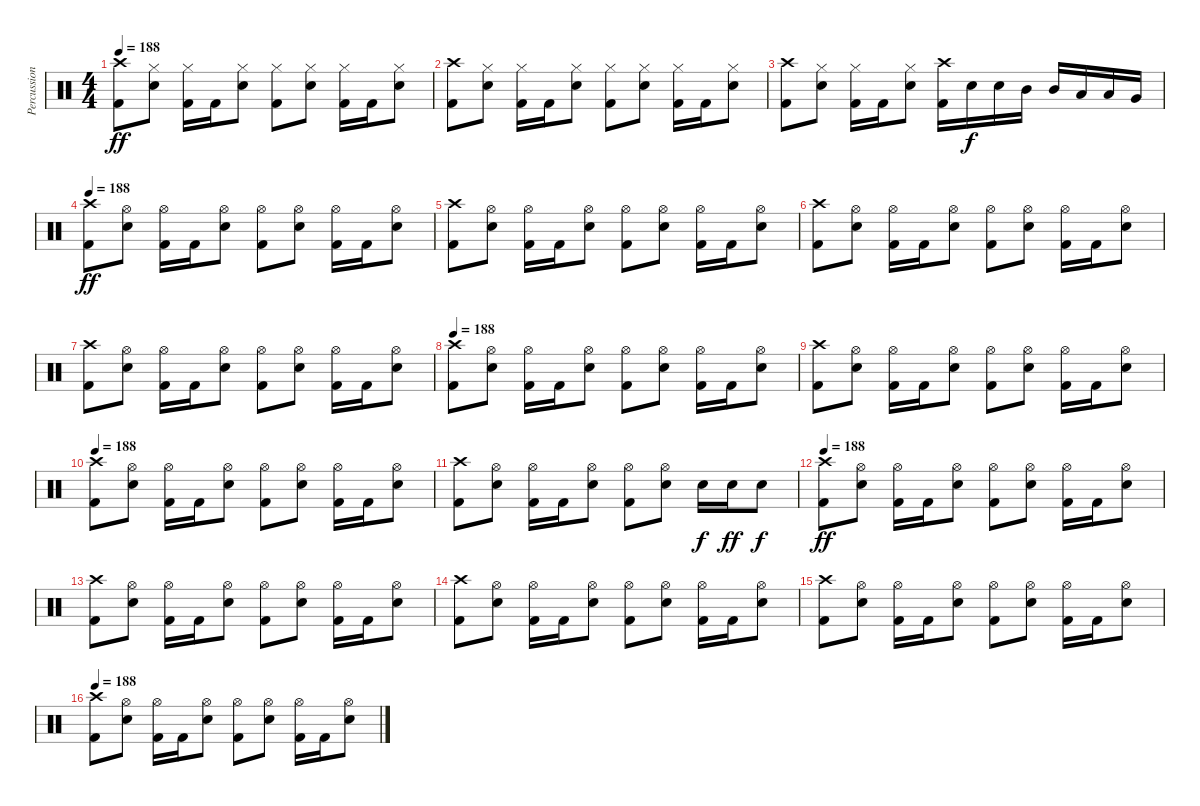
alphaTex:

\track ("Percussion" "Percussion") {instrument percussion}
\staff {score}
\articulation defaults
\ts (4 4)
\tempo 188
\clef neutral
\ks c
("Crash high (hit)" "Kick (hit) 2").8{dy ff} ("Hi-Hat (closed)" "Snare (hit) 2").8 ("Hi-Hat (closed)" "Kick (hit) 2").16 "Kick (hit) 2".16 ("Hi-Hat (closed)" "Snare (hit) 2").8 ("Hi-Hat (closed)" "Kick (hit) 2").8 ("Hi-Hat (closed)" "Snare (hit) 2").8 ("Hi-Hat (closed)" "Kick (hit) 2").16 "Kick (hit) 2".16 ("Hi-Hat (closed)" "Snare (hit) 2").8 |
("Crash high (hit)" "Kick (hit) 2").8 ("Hi-Hat (closed)" "Snare (hit) 2").8 ("Hi-Hat (closed)" "Kick (hit) 2").16 "Kick (hit) 2".16 ("Hi-Hat (closed)" "Snare (hit) 2").8 ("Hi-Hat (closed)" "Kick (hit) 2").8 ("Hi-Hat (closed)" "Snare (hit) 2").8 ("Hi-Hat (closed)" "Kick (hit) 2").16 "Kick (hit) 2".16 ("Hi-Hat (closed)" "Snare (hit) 2").8 |
("Crash high (hit)" "Kick (hit) 2").8 ("Hi-Hat (closed)" "Snare (hit) 2").8 ("Hi-Hat (closed)" "Kick (hit) 2").16 "Kick (hit) 2".16 ("Hi-Hat (closed)" "Snare (hit) 2").8 ("Crash high (hit)" "Kick (hit) 2").16 "Snare (hit) 2".16{dy f} "Snare (hit) 2".16 "Mid Tom (hit)".16 "Mid Tom (hit)".16 "Low Tom (hit)".16 "Low Tom (hit)".16 "Very Low Tom (hit)".16 |
\tempo 188
("Crash high (hit)" "Kick (hit) 2").8{dy ff} ("Hi-Hat (open)" "Snare (hit) 2").8 ("Hi-Hat (open)" "Kick (hit) 2").16 "Kick (hit) 2".16 ("Hi-Hat (open)" "Snare (hit) 2").8 ("Hi-Hat (open)" "Kick (hit) 2").8 ("Hi-Hat (open)" "Snare (hit) 2").8 ("Hi-Hat (open)" "Kick (hit) 2").16 "Kick (hit) 2".16 ("Hi-Hat (open)" "Snare (hit) 2").8 |
("Crash high (hit)" "Kick (hit) 2").8 ("Hi-Hat (open)" "Snare (hit) 2").8 ("Hi-Hat (open)" "Kick (hit) 2").16 "Kick (hit) 2".16 ("Hi-Hat (open)" "Snare (hit) 2").8 ("Hi-Hat (open)" "Kick (hit) 2").8 ("Hi-Hat (open)" "Snare (hit) 2").8 ("Hi-Hat (open)" "Kick (hit) 2").16 "Kick (hit) 2".16 ("Hi-Hat (open)" "Snare (hit) 2").8 |
("Crash high (hit)" "Kick (hit) 2").8 ("Hi-Hat (open)" "Snare (hit) 2").8 ("Hi-Hat (open)" "Kick (hit) 2").16 "Kick (hit) 2".16 ("Hi-Hat (open)" "Snare (hit) 2").8 ("Hi-Hat (open)" "Kick (hit) 2").8 ("Hi-Hat (open)" "Snare (hit) 2").8 ("Hi-Hat (open)" "Kick (hit) 2").16 "Kick (hit) 2".16 ("Hi-Hat (open)" "Snare (hit) 2").8 |
("Crash high (hit)" "Kick (hit) 2").8 ("Hi-Hat (open)" "Snare (hit) 2").8 ("Hi-Hat (open)" "Kick (hit) 2").16 "Kick (hit) 2".16 ("Hi-Hat (open)" "Snare (hit) 2").8 ("Hi-Hat (open)" "Kick (hit) 2").8 ("Hi-Hat (open)" "Snare (hit) 2").8 ("Hi-Hat (open)" "Kick (hit) 2").16 "Kick (hit) 2".16 ("Hi-Hat (open)" "Snare (hit) 2").8 |
\tempo 188
("Crash high (hit)" "Kick (hit) 2").8 ("Hi-Hat (open)" "Snare (hit) 2").8 ("Hi-Hat (open)" "Kick (hit) 2").16 "Kick (hit) 2".16 ("Hi-Hat (open)" "Snare (hit) 2").8 ("Hi-Hat (open)" "Kick (hit) 2").8 ("Hi-Hat (open)" "Snare (hit) 2").8 ("Hi-Hat (open)" "Kick (hit) 2").16 "Kick (hit) 2".16 ("Hi-Hat (open)" "Snare (hit) 2").8 |
("Crash high (hit)" "Kick (hit) 2").8 ("Hi-Hat (open)" "Snare (hit) 2").8 ("Hi-Hat (open)" "Kick (hit) 2").16 "Kick (hit) 2".16 ("Hi-Hat (open)" "Snare (hit) 2").8 ("Hi-Hat (open)" "Kick (hit) 2").8 ("Hi-Hat (open)" "Snare (hit) 2").8 ("Hi-Hat (open)" "Kick (hit) 2").16 "Kick (hit) 2".16 ("Hi-Hat (open)" "Snare (hit) 2").8 |
\tempo 188
("Crash high (hit)" "Kick (hit) 2").8 ("Hi-Hat (open)" "Snare (hit) 2").8 ("Hi-Hat (open)" "Kick (hit) 2").16 "Kick (hit) 2".16 ("Hi-Hat (open)" "Snare (hit) 2").8 ("Hi-Hat (open)" "Kick (hit) 2").8 ("Hi-Hat (open)" "Snare (hit) 2").8 ("Hi-Hat (open)" "Kick (hit) 2").16 "Kick (hit) 2".16 ("Hi-Hat (open)" "Snare (hit) 2").8 |
("Crash high (hit)" "Kick (hit) 2").8 ("Hi-Hat (open)" "Snare (hit) 2").8 ("Hi-Hat (open)" "Kick (hit) 2").16 "Kick (hit) 2".16 ("Hi-Hat (open)" "Snare (hit) 2").8 ("Hi-Hat (open)" "Kick (hit) 2").8 ("Hi-Hat (open)" "Snare (hit) 2").8 "Snare (hit) 2".16{dy f} "Snare (hit) 2".16{dy ff} "Snare (hit) 2".8{dy f} |
\tempo 188
("Crash high (hit)" "Kick (hit) 2").8{dy ff} ("Hi-Hat (open)" "Snare (hit) 2").8 ("Hi-Hat (open)" "Kick (hit) 2").16 "Kick (hit) 2".16 ("Hi-Hat (open)" "Snare (hit) 2").8 ("Hi-Hat (open)" "Kick (hit) 2").8 ("Hi-Hat (open)" "Snare (hit) 2").8 ("Hi-Hat (open)" "Kick (hit) 2").16 "Kick (hit) 2".16 ("Hi-Hat (open)" "Snare (hit) 2").8 |
("Crash high (hit)" "Kick (hit) 2").8 ("Hi-Hat (open)" "Snare (hit) 2").8 ("Hi-Hat (open)" "Kick (hit) 2").16 "Kick (hit) 2".16 ("Hi-Hat (open)" "Snare (hit) 2").8 ("Hi-Hat (open)" "Kick (hit) 2").8 ("Hi-Hat (open)" "Snare (hit) 2").8 ("Hi-Hat (open)" "Kick (hit) 2").16 "Kick (hit) 2".16 ("Hi-Hat (open)" "Snare (hit) 2").8 |
("Crash high (hit)" "Kick (hit) 2").8 ("Hi-Hat (open)" "Snare (hit) 2").8 ("Hi-Hat (open)" "Kick (hit) 2").16 "Kick (hit) 2".16 ("Hi-Hat (open)" "Snare (hit) 2").8 ("Hi-Hat (open)" "Kick (hit) 2").8 ("Hi-Hat (open)" "Snare (hit) 2").8 ("Hi-Hat (open)" "Kick (hit) 2").16 "Kick (hit) 2".16 ("Hi-Hat (open)" "Snare (hit) 2").8 |
("Crash high (hit)" "Kick (hit) 2").8 ("Hi-Hat (open)" "Snare (hit) 2").8 ("Hi-Hat (open)" "Kick (hit) 2").16 "Kick (hit) 2".16 ("Hi-Hat (open)" "Snare (hit) 2").8 ("Hi-Hat (open)" "Kick (hit) 2").8 ("Hi-Hat (open)" "Snare (hit) 2").8 ("Hi-Hat (open)" "Kick (hit) 2").16 "Kick (hit) 2".16 ("Hi-Hat (open)" "Snare (hit) 2").8 |
\tempo 188
("Crash high (hit)" "Kick (hit) 2").8 ("Hi-Hat (open)" "Snare (hit) 2").8 ("Hi-Hat (open)" "Kick (hit) 2").16 "Kick (hit) 2".16 ("Hi-Hat (open)" "Snare (hit) 2").8 ("Hi-Hat (open)" "Kick (hit) 2").8 ("Hi-Hat (open)" "Snare (hit) 2").8 ("Hi-Hat (open)" "Kick (hit) 2").16 "Kick (hit) 2".16 ("Hi-Hat (open)" "Snare (hit) 2").8
